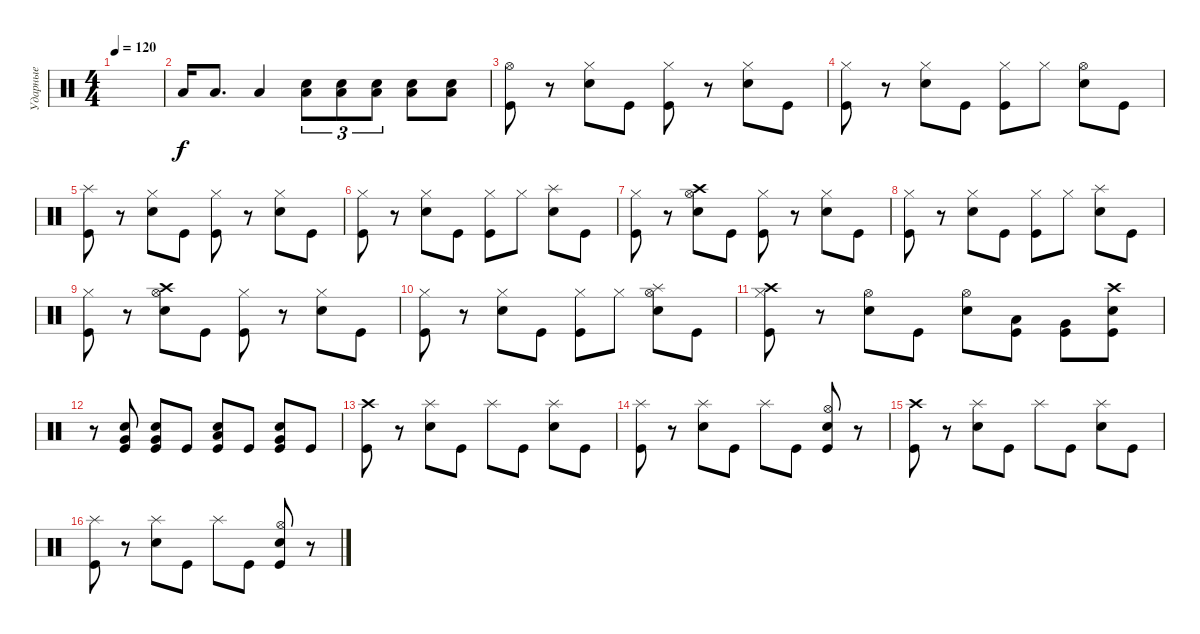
\track ("Ударные" "Ударные") {instrument percussion}
\staff {score}
\articulation defaults
\ts (4 4)
\tempo 120
\clef neutral
\ks c
|
"Low Tom (hit)".16 "Low Tom (hit)".8{d} "Low Tom (hit)".4 ("Snare (hit) 2" "Low Tom (hit)").8{tu (3 2)} ("Snare (hit) 2" "Low Tom (hit)").8{tu (3 2)} ("Snare (hit) 2" "Low Tom (hit)").8{tu (3 2)} ("Snare (hit) 2" "Low Tom (hit)").8 ("Snare (hit) 2" "Low Tom (hit)").8 |
("Hi-Hat (open)" "Kick (hit)").8 r.8 ("Hi-Hat (closed)" "Snare (hit) 2").8 "Kick (hit)".8 ("Hi-Hat (closed)" "Kick (hit)").8 r.8 ("Hi-Hat (closed)" "Snare (hit) 2").8 "Kick (hit)".8 |
("Hi-Hat (closed)" "Kick (hit)").8 r.8 ("Hi-Hat (closed)" "Snare (hit) 2").8 "Kick (hit)".8 ("Hi-Hat (closed)" "Kick (hit)").8 "Hi-Hat (closed)".8 ("Hi-Hat (open)" "Snare (hit) 2").8 "Kick (hit)".8 |
("Splash (hit)" "Kick (hit)").8 r.8 ("Hi-Hat (closed)" "Snare (hit) 2").8 "Kick (hit)".8 ("Hi-Hat (closed)" "Kick (hit)").8 r.8 ("Hi-Hat (closed)" "Snare (hit) 2").8 "Kick (hit)".8 |
("Hi-Hat (closed)" "Kick (hit)").8 r.8 ("Hi-Hat (closed)" "Snare (hit) 2").8 "Kick (hit)".8 ("Hi-Hat (closed)" "Kick (hit)").8 "Hi-Hat (closed)".8 ("Splash (hit)" "Snare (hit) 2").8 "Kick (hit)".8 |
("Hi-Hat (closed)" "Kick (hit)").8 r.8 ("Hi-Hat (open)" "Crash high (hit)" "Snare (hit) 2").8 "Kick (hit)".8 ("Hi-Hat (closed)" "Kick (hit)").8 r.8 ("Hi-Hat (closed)" "Snare (hit) 2").8 "Kick (hit)".8 |
("Hi-Hat (closed)" "Kick (hit)").8 r.8 ("Hi-Hat (closed)" "Snare (hit) 2").8 "Kick (hit)".8 ("Hi-Hat (closed)" "Kick (hit)").8 "Hi-Hat (closed)".8 ("Splash (hit)" "Snare (hit) 2").8 "Kick (hit)".8 |
("Hi-Hat (closed)" "Kick (hit)").8 r.8 ("Hi-Hat (open)" "Crash high (hit)" "Snare (hit) 2").8 "Kick (hit)".8 ("Hi-Hat (closed)" "Kick (hit)").8 r.8 ("Hi-Hat (closed)" "Snare (hit) 2").8 "Kick (hit)".8 |
("Hi-Hat (closed)" "Kick (hit)").8 r.8 ("Hi-Hat (closed)" "Snare (hit) 2").8 "Kick (hit)".8 ("Hi-Hat (closed)" "Kick (hit)").8 "Hi-Hat (closed)".8 ("Splash (hit)" "Hi-Hat (open)" "Snare (hit) 2").8 "Kick (hit)".8 |
("Hi-Hat (closed)" "Crash high (hit)" "Kick (hit)").8 r.8 ("Hi-Hat (open)" "Snare (hit) 2").8 "Kick (hit)".8 ("Hi-Hat (open)" "Snare (hit) 2").8 ("Low Tom (hit)" "Kick (hit)").8 ("Very Low Tom (hit)" "Kick (hit)").8 ("Crash high (hit)" "Snare (hit) 2" "Kick (hit)").8 |
r.8 ("Snare (hit) 2" "Very Low Tom (hit)" "Kick (hit)").8 ("Snare (hit) 2" "Very Low Tom (hit)" "Kick (hit)").8 "Kick (hit)".8 ("Snare (hit) 2" "Low Tom (hit)" "Kick (hit)").8 "Kick (hit)".8 ("Snare (hit) 2" "Very Low Tom (hit)" "Kick (hit)").8 "Kick (hit)".8 |
("Crash high (hit)" "Kick (hit)").8 r.8 ("Splash (hit)" "Snare (hit) 2").8 "Kick (hit)".8 "Splash (hit)".8 "Kick (hit)".8 ("Splash (hit)" "Snare (hit) 2").8 "Kick (hit)".8 |
("Splash (hit)" "Kick (hit)").8 r.8 ("Splash (hit)" "Snare (hit) 2").8 "Kick (hit)".8 "Splash (hit)".8 "Kick (hit)".8 ("Hi-Hat (open)" "Snare (hit) 2" "Kick (hit)").8 r.8 |
("Crash high (hit)" "Kick (hit)").8 r.8 ("Splash (hit)" "Snare (hit) 2").8 "Kick (hit)".8 "Splash (hit)".8 "Kick (hit)".8 ("Splash (hit)" "Snare (hit) 2").8 "Kick (hit)".8 |
("Splash (hit)" "Kick (hit)").8 r.8 ("Splash (hit)" "Snare (hit) 2").8 "Kick (hit)".8 "Splash (hit)".8 "Kick (hit)".8 ("Hi-Hat (open)" "Snare (hit) 2" "Kick (hit)").8 r.8
